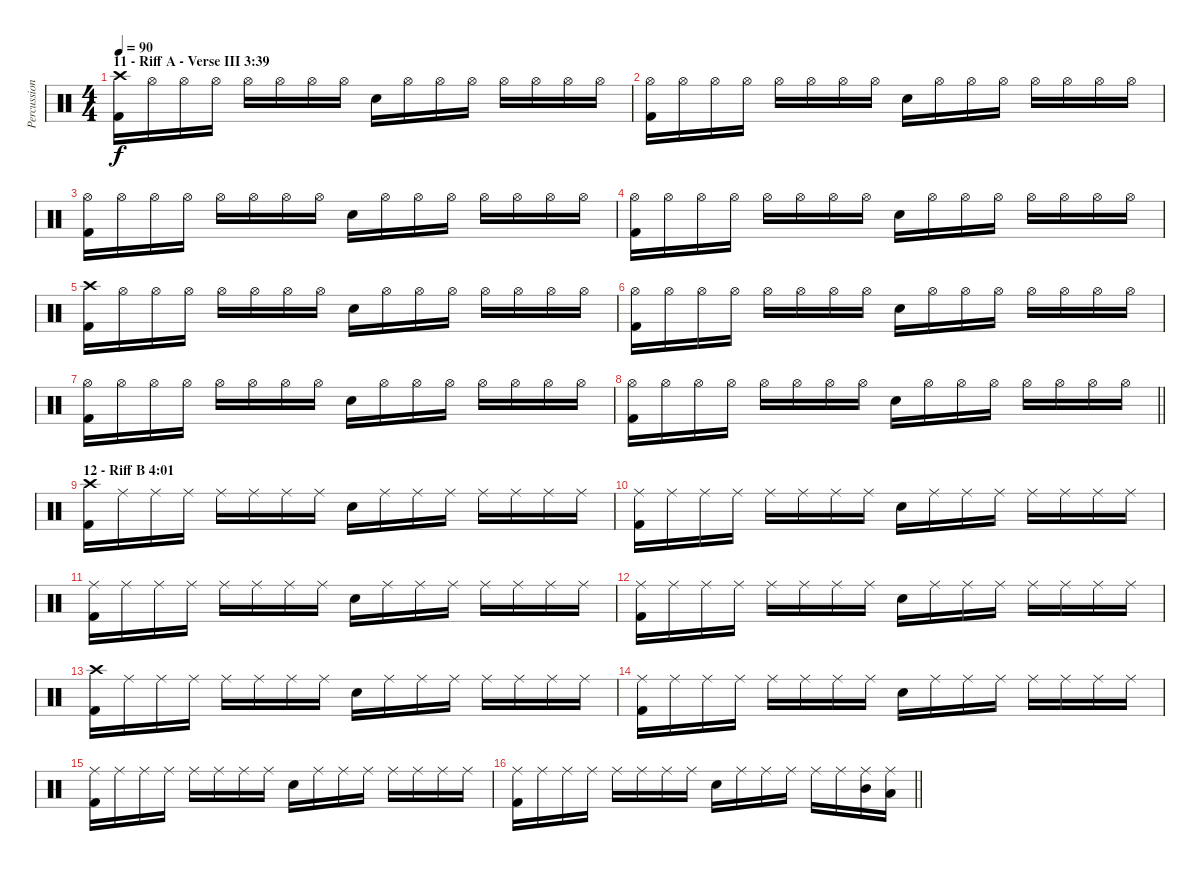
\track ("Percussion" "Percussion") {instrument percussion}
\staff {score}
\articulation defaults
\ts (4 4)
\section ("" "11 - Riff A - Verse III 3:39")
\tempo 90
\clef neutral
\ks c
("Crash high (hit)" "Kick (hit) 2").16{dy f} "Hi-Hat (open)".16 "Hi-Hat (open)".16 "Hi-Hat (open)".16 "Hi-Hat (open)".16 "Hi-Hat (open)".16 "Hi-Hat (open)".16 "Hi-Hat (open)".16 "Snare (hit) 2".16 "Hi-Hat (open)".16 "Hi-Hat (open)".16 "Hi-Hat (open)".16 "Hi-Hat (open)".16 "Hi-Hat (open)".16 "Hi-Hat (open)".16 "Hi-Hat (open)".16 |
("Hi-Hat (open)" "Kick (hit) 2").16 "Hi-Hat (open)".16 "Hi-Hat (open)".16 "Hi-Hat (open)".16 "Hi-Hat (open)".16 "Hi-Hat (open)".16 "Hi-Hat (open)".16 "Hi-Hat (open)".16 "Snare (hit) 2".16 "Hi-Hat (open)".16 "Hi-Hat (open)".16 "Hi-Hat (open)".16 "Hi-Hat (open)".16 "Hi-Hat (open)".16 "Hi-Hat (open)".16 "Hi-Hat (open)".16 |
("Hi-Hat (open)" "Kick (hit) 2").16 "Hi-Hat (open)".16 "Hi-Hat (open)".16 "Hi-Hat (open)".16 "Hi-Hat (open)".16 "Hi-Hat (open)".16 "Hi-Hat (open)".16 "Hi-Hat (open)".16 "Snare (hit) 2".16 "Hi-Hat (open)".16 "Hi-Hat (open)".16 "Hi-Hat (open)".16 "Hi-Hat (open)".16 "Hi-Hat (open)".16 "Hi-Hat (open)".16 "Hi-Hat (open)".16 |
("Hi-Hat (open)" "Kick (hit) 2").16 "Hi-Hat (open)".16 "Hi-Hat (open)".16 "Hi-Hat (open)".16 "Hi-Hat (open)".16 "Hi-Hat (open)".16 "Hi-Hat (open)".16 "Hi-Hat (open)".16 "Snare (hit) 2".16 "Hi-Hat (open)".16 "Hi-Hat (open)".16 "Hi-Hat (open)".16 "Hi-Hat (open)".16 "Hi-Hat (open)".16 "Hi-Hat (open)".16 "Hi-Hat (open)".16 |
("Crash high (hit)" "Kick (hit) 2").16 "Hi-Hat (open)".16 "Hi-Hat (open)".16 "Hi-Hat (open)".16 "Hi-Hat (open)".16 "Hi-Hat (open)".16 "Hi-Hat (open)".16 "Hi-Hat (open)".16 "Snare (hit) 2".16 "Hi-Hat (open)".16 "Hi-Hat (open)".16 "Hi-Hat (open)".16 "Hi-Hat (open)".16 "Hi-Hat (open)".16 "Hi-Hat (open)".16 "Hi-Hat (open)".16 |
("Hi-Hat (open)" "Kick (hit) 2").16 "Hi-Hat (open)".16 "Hi-Hat (open)".16 "Hi-Hat (open)".16 "Hi-Hat (open)".16 "Hi-Hat (open)".16 "Hi-Hat (open)".16 "Hi-Hat (open)".16 "Snare (hit) 2".16 "Hi-Hat (open)".16 "Hi-Hat (open)".16 "Hi-Hat (open)".16 "Hi-Hat (open)".16 "Hi-Hat (open)".16 "Hi-Hat (open)".16 "Hi-Hat (open)".16 |
("Hi-Hat (open)" "Kick (hit) 2").16 "Hi-Hat (open)".16 "Hi-Hat (open)".16 "Hi-Hat (open)".16 "Hi-Hat (open)".16 "Hi-Hat (open)".16 "Hi-Hat (open)".16 "Hi-Hat (open)".16 "Snare (hit) 2".16 "Hi-Hat (open)".16 "Hi-Hat (open)".16 "Hi-Hat (open)".16 "Hi-Hat (open)".16 "Hi-Hat (open)".16 "Hi-Hat (open)".16 "Hi-Hat (open)".16 |
\barLineRight lightlight
("Hi-Hat (open)" "Kick (hit) 2").16 "Hi-Hat (open)".16 "Hi-Hat (open)".16 "Hi-Hat (open)".16 "Hi-Hat (open)".16 "Hi-Hat (open)".16 "Hi-Hat (open)".16 "Hi-Hat (open)".16 "Snare (hit) 2".16 "Hi-Hat (open)".16 "Hi-Hat (open)".16 "Hi-Hat (open)".16 "Hi-Hat (open)".16 "Hi-Hat (open)".16 "Hi-Hat (open)".16 "Hi-Hat (open)".16 |
\section ("" "12 - Riff B 4:01")
("Crash high (hit)" "Kick (hit) 2").16 "Ride (middle)".16 "Ride (middle)".16 "Ride (middle)".16 "Ride (middle)".16 "Ride (middle)".16 "Ride (middle)".16 "Ride (middle)".16 "Snare (hit) 2".16 "Ride (middle)".16 "Ride (middle)".16 "Ride (middle)".16 "Ride (middle)".16 "Ride (middle)".16 "Ride (middle)".16 "Ride (middle)".16 |
("Ride (middle)" "Kick (hit) 2").16 "Ride (middle)".16 "Ride (middle)".16 "Ride (middle)".16 "Ride (middle)".16 "Ride (middle)".16 "Ride (middle)".16 "Ride (middle)".16 "Snare (hit) 2".16 "Ride (middle)".16 "Ride (middle)".16 "Ride (middle)".16 "Ride (middle)".16 "Ride (middle)".16 "Ride (middle)".16 "Ride (middle)".16 |
("Ride (middle)" "Kick (hit) 2").16 "Ride (middle)".16 "Ride (middle)".16 "Ride (middle)".16 "Ride (middle)".16 "Ride (middle)".16 "Ride (middle)".16 "Ride (middle)".16 "Snare (hit) 2".16 "Ride (middle)".16 "Ride (middle)".16 "Ride (middle)".16 "Ride (middle)".16 "Ride (middle)".16 "Ride (middle)".16 "Ride (middle)".16 |
("Ride (middle)" "Kick (hit) 2").16 "Ride (middle)".16 "Ride (middle)".16 "Ride (middle)".16 "Ride (middle)".16 "Ride (middle)".16 "Ride (middle)".16 "Ride (middle)".16 "Snare (hit) 2".16 "Ride (middle)".16 "Ride (middle)".16 "Ride (middle)".16 "Ride (middle)".16 "Ride (middle)".16 "Ride (middle)".16 "Ride (middle)".16 |
("Crash high (hit)" "Kick (hit) 2").16 "Ride (middle)".16 "Ride (middle)".16 "Ride (middle)".16 "Ride (middle)".16 "Ride (middle)".16 "Ride (middle)".16 "Ride (middle)".16 "Snare (hit) 2".16 "Ride (middle)".16 "Ride (middle)".16 "Ride (middle)".16 "Ride (middle)".16 "Ride (middle)".16 "Ride (middle)".16 "Ride (middle)".16 |
("Ride (middle)" "Kick (hit) 2").16 "Ride (middle)".16 "Ride (middle)".16 "Ride (middle)".16 "Ride (middle)".16 "Ride (middle)".16 "Ride (middle)".16 "Ride (middle)".16 "Snare (hit) 2".16 "Ride (middle)".16 "Ride (middle)".16 "Ride (middle)".16 "Ride (middle)".16 "Ride (middle)".16 "Ride (middle)".16 "Ride (middle)".16 |
("Ride (middle)" "Kick (hit) 2").16 "Ride (middle)".16 "Ride (middle)".16 "Ride (middle)".16 "Ride (middle)".16 "Ride (middle)".16 "Ride (middle)".16 "Ride (middle)".16 "Snare (hit) 2".16 "Ride (middle)".16 "Ride (middle)".16 "Ride (middle)".16 "Ride (middle)".16 "Ride (middle)".16 "Ride (middle)".16 "Ride (middle)".16 |
\barLineRight lightlight
("Ride (middle)" "Kick (hit) 2").16 "Ride (middle)".16 "Ride (middle)".16 "Ride (middle)".16 "Ride (middle)".16 "Ride (middle)".16 "Ride (middle)".16 "Ride (middle)".16 "Snare (hit) 2".16 "Ride (middle)".16 "Ride (middle)".16 "Ride (middle)".16 "Ride (middle)".16 "Ride (middle)".16 ("Ride (middle)" "Mid Tom (hit)").16 ("Ride (middle)" "Low Tom (hit)").16
